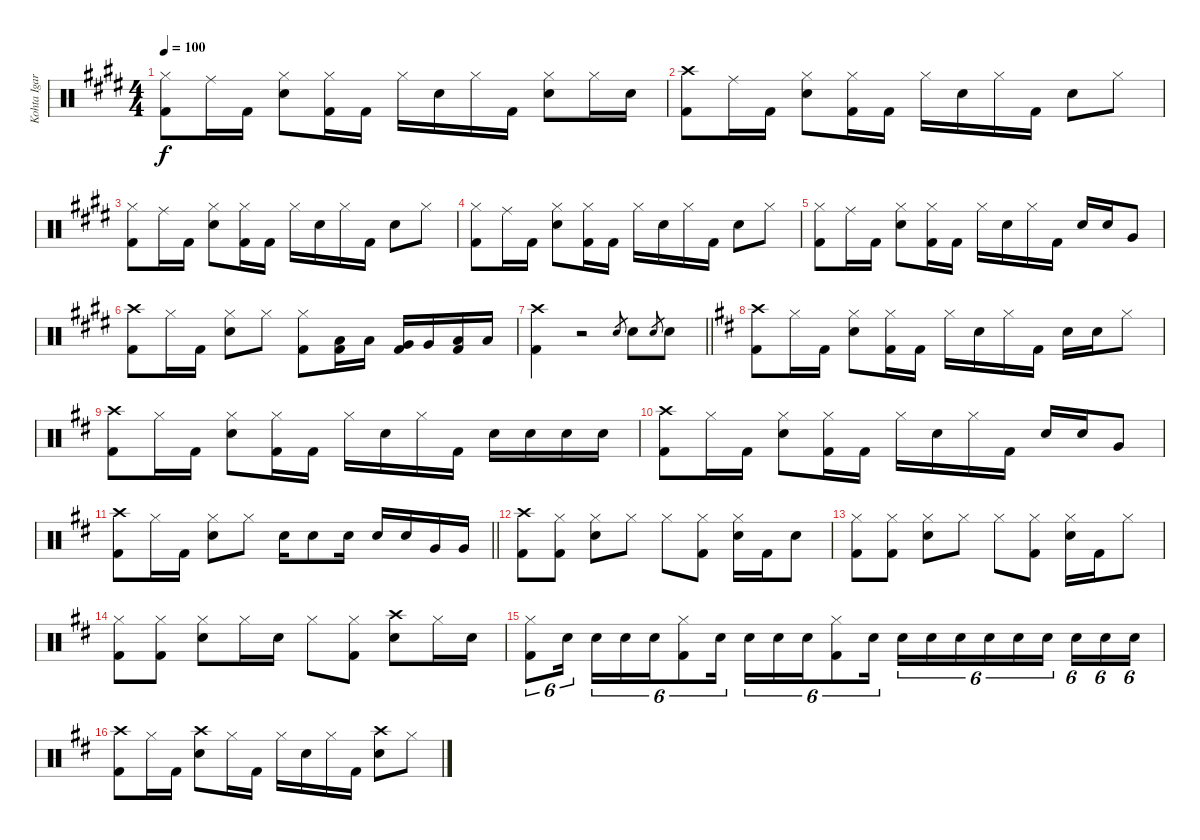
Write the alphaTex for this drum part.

\track ("Kohta Igarashi" "Kohta Igar") {instrument percussion}
\staff {score}
\articulation defaults
\ts (4 4)
\tempo 100
\clef neutral
\ks e
("Hi-Hat (closed)" "Kick (hit) 2").8{dy f} "Ride (middle)".16 "Kick (hit) 2".16 ("Hi-Hat (closed)" "Electric Snare (hit)").8 ("Hi-Hat (closed)" "Kick (hit) 2").16 "Kick (hit) 2".16 "Hi-Hat (closed)".16 "Electric Snare (hit)".16 "Hi-Hat (closed)".16 "Kick (hit) 2".16 ("Hi-Hat (closed)" "Electric Snare (hit)").8 "Hi-Hat (closed)".16 "Electric Snare (hit)".16 |
("Crash high (hit)" "Kick (hit) 2").8 "Ride (middle)".16 "Kick (hit) 2".16 ("Hi-Hat (closed)" "Electric Snare (hit)").8 ("Hi-Hat (closed)" "Kick (hit) 2").16 "Kick (hit) 2".16 "Hi-Hat (closed)".16 "Electric Snare (hit)".16 "Hi-Hat (closed)".16 "Kick (hit) 2".16 "Electric Snare (hit)".8 "Hi-Hat (closed)".8 |
("Hi-Hat (closed)" "Kick (hit) 2").8 "Ride (middle)".16 "Kick (hit) 2".16 ("Hi-Hat (closed)" "Electric Snare (hit)").8 ("Hi-Hat (closed)" "Kick (hit) 2").16 "Kick (hit) 2".16 "Hi-Hat (closed)".16 "Electric Snare (hit)".16 "Hi-Hat (closed)".16 "Kick (hit) 2".16 "Electric Snare (hit)".8 "Hi-Hat (closed)".8 |
("Hi-Hat (closed)" "Kick (hit) 2").8 "Ride (middle)".16 "Kick (hit) 2".16 ("Hi-Hat (closed)" "Electric Snare (hit)").8 ("Hi-Hat (closed)" "Kick (hit) 2").16 "Kick (hit) 2".16 "Hi-Hat (closed)".16 "Electric Snare (hit)".16 "Hi-Hat (closed)".16 "Kick (hit) 2".16 "Electric Snare (hit)".8 "Hi-Hat (closed)".8 |
("Hi-Hat (closed)" "Kick (hit) 2").8 "Ride (middle)".16 "Kick (hit) 2".16 ("Hi-Hat (closed)" "Electric Snare (hit)").8 ("Hi-Hat (closed)" "Kick (hit) 2").16 "Kick (hit) 2".16 "Hi-Hat (closed)".16 "Electric Snare (hit)".16 "Hi-Hat (closed)".16 "Kick (hit) 2".16 "Electric Snare (hit)".16 "Electric Snare (hit)".16 "Very Low Tom (hit)".8 |
("Crash high (hit)" "Kick (hit) 2").8 "Hi-Hat (closed)".16 "Kick (hit) 2".16 ("Hi-Hat (closed)" "Electric Snare (hit)").8 "Hi-Hat (closed)".8 ("Hi-Hat (closed)" "Kick (hit) 2").8 ("Low Tom (hit)" "Kick (hit) 2").16 "Low Tom (hit)".16 ("Very Low Tom (hit)" "Kick (hit) 2").16 "Very Low Tom (hit)".16 ("Low Floor Tom (hit)" "Kick (hit) 2").16 "Low Floor Tom (hit)".16 |
\barLineRight lightlight
("Crash high (hit)" "Kick (hit) 2").4 r.2 "Electric Snare (hit)".8{gr} "Electric Snare (hit)".8 "Electric Snare (hit)".8{gr} "Electric Snare (hit)".8 |
\ks d
("Crash high (hit)" "Kick (hit) 2").8 "Hi-Hat (closed)".16 "Kick (hit) 2".16 ("Hi-Hat (closed)" "Electric Snare (hit)").8 ("Hi-Hat (closed)" "Kick (hit) 2").16 "Kick (hit) 2".16 "Hi-Hat (closed)".16 "Electric Snare (hit)".16 "Hi-Hat (closed)".16 "Kick (hit) 2".16 "Electric Snare (hit)".16 "Electric Snare (hit)".16 "Hi-Hat (closed)".8 |
("Crash high (hit)" "Kick (hit) 2").8 "Hi-Hat (closed)".16 "Kick (hit) 2".16 ("Hi-Hat (closed)" "Electric Snare (hit)").8 ("Hi-Hat (closed)" "Kick (hit) 2").16 "Kick (hit) 2".16 "Hi-Hat (closed)".16 "Electric Snare (hit)".16 "Hi-Hat (closed)".16 "Kick (hit) 2".16 "Electric Snare (hit)".16 "Electric Snare (hit)".16 "Electric Snare (hit)".16 "Electric Snare (hit)".16 |
("Crash high (hit)" "Kick (hit) 2").8 "Hi-Hat (closed)".16 "Kick (hit) 2".16 ("Hi-Hat (closed)" "Electric Snare (hit)").8 ("Hi-Hat (closed)" "Kick (hit) 2").16 "Kick (hit) 2".16 "Hi-Hat (closed)".16 "Electric Snare (hit)".16 "Hi-Hat (closed)".16 "Kick (hit) 2".16 "Electric Snare (hit)".16 "Electric Snare (hit)".16 "Very Low Tom (hit)".8 |
\barLineRight lightlight
("Crash high (hit)" "Kick (hit) 2").8 "Hi-Hat (closed)".16 "Kick (hit) 2".16 ("Hi-Hat (closed)" "Electric Snare (hit)").8 "Hi-Hat (closed)".8 "Electric Snare (hit)".16 "Electric Snare (hit)".8 "Electric Snare (hit)".16 "Electric Snare (hit)".16 "Electric Snare (hit)".16 "Very Low Tom (hit)".16 "Very Low Tom (hit)".16 |
("Crash high (hit)" "Kick (hit) 2").8 ("Hi-Hat (closed)" "Kick (hit) 2").8 ("Hi-Hat (closed)" "Electric Snare (hit)").8 "Hi-Hat (closed)".8 "Hi-Hat (closed)".8 ("Hi-Hat (closed)" "Kick (hit) 2").8 ("Hi-Hat (closed)" "Electric Snare (hit)").16 "Kick (hit) 2".16 "Snare (hit)".8 |
("Hi-Hat (closed)" "Kick (hit) 2").8 ("Hi-Hat (closed)" "Kick (hit) 2").8 ("Hi-Hat (closed)" "Electric Snare (hit)").8 "Hi-Hat (closed)".8 "Hi-Hat (closed)".8 ("Hi-Hat (closed)" "Kick (hit) 2").8 ("Hi-Hat (closed)" "Electric Snare (hit)").16 "Kick (hit) 2".16 "Hi-Hat (closed)".8 |
("Hi-Hat (closed)" "Kick (hit) 2").8 ("Hi-Hat (closed)" "Kick (hit) 2").8 ("Hi-Hat (closed)" "Electric Snare (hit)").8 "Hi-Hat (closed)".16 "Electric Snare (hit)".16 "Hi-Hat (closed)".8 ("Hi-Hat (closed)" "Kick (hit) 2").8 ("Crash high (hit)" "Electric Snare (hit)").8 "Hi-Hat (closed)".16 "Electric Snare (hit)".16 |
("Hi-Hat (closed)" "Kick (hit) 2").8{tu (6 4)} "Electric Snare (hit)".16{tu (6 4)} "Electric Snare (hit)".16{tu (6 4)} "Electric Snare (hit)".16{tu (6 4)} "Electric Snare (hit)".16{tu (6 4)} ("Hi-Hat (closed)" "Kick (hit) 2").8{tu (6 4)} "Electric Snare (hit)".16{tu (6 4)} "Electric Snare (hit)".16{tu (6 4)} "Electric Snare (hit)".16{tu (6 4)} "Electric Snare (hit)".16{tu (6 4)} ("Hi-Hat (closed)" "Kick (hit) 2").8{tu (6 4)} "Electric Snare (hit)".16{tu (6 4)} "Electric Snare (hit)".16{tu (6 4)} "Electric Snare (hit)".16{tu (6 4)} "Electric Snare (hit)".16{tu (6 4)} "Electric Snare (hit)".16{tu (6 4)} "Electric Snare (hit)".16{tu (6 4)} "Electric Snare (hit)".16{tu (6 4)} "Electric Snare (hit)".16{tu (6 4)} "Electric Snare (hit)".16{tu (6 4)} "Electric Snare (hit)".16{tu (6 4)} |
("Crash high (hit)" "Kick (hit) 2").8 "Hi-Hat (closed)".16 "Kick (hit) 2".16 ("Crash high (hit)" "Electric Snare (hit)").8 "Hi-Hat (closed)".16 "Kick (hit) 2".16 "Hi-Hat (closed)".16 "Electric Snare (hit)".16 "Hi-Hat (closed)".16 "Kick (hit) 2".16 ("Crash high (hit)" "Electric Snare (hit)").8 "Hi-Hat (closed)".8
